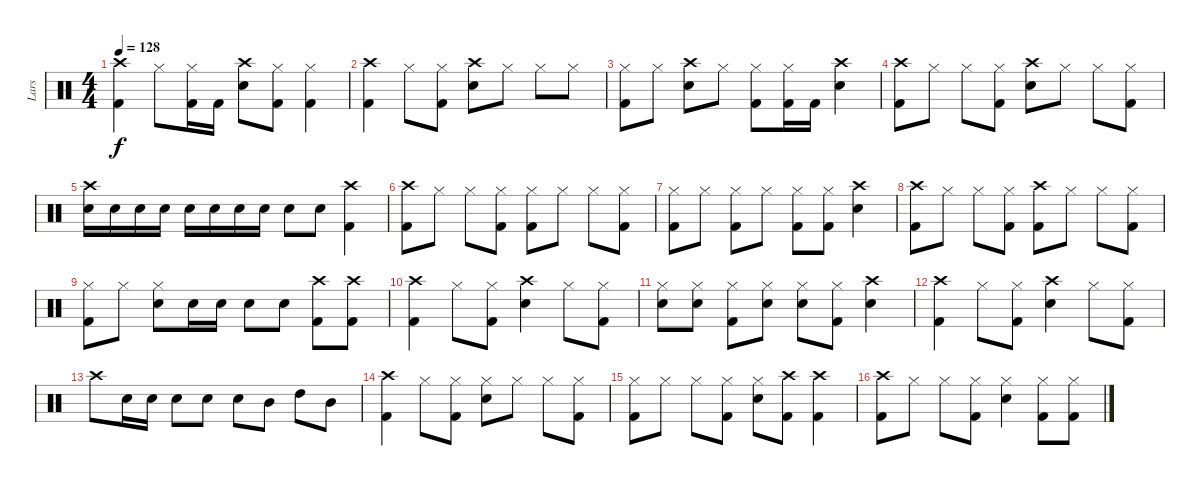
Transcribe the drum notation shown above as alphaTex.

\track ("Lars" "Lars") {instrument percussion}
\staff {score}
\articulation defaults
\ts (4 4)
\tempo 128
\clef neutral
\ks c
("Crash high (hit)" "Kick (hit) 2").4{dy f} "Hi-Hat (closed)".8 ("Hi-Hat (closed)" "Kick (hit) 2").16 "Kick (hit) 2".16 ("Crash high (hit)" "Electric Snare (hit)").8 ("Hi-Hat (closed)" "Kick (hit) 2").8 ("Hi-Hat (closed)" "Kick (hit) 2").4 |
("Crash high (hit)" "Kick (hit) 2").4 "Hi-Hat (closed)".8 ("Hi-Hat (closed)" "Kick (hit) 2").8 ("Crash high (hit)" "Electric Snare (hit)").8 "Hi-Hat (closed)".8 "Hi-Hat (closed)".8 "Hi-Hat (closed)".8 |
("Hi-Hat (closed)" "Kick (hit) 2").8 "Hi-Hat (closed)".8 ("Electric Snare (hit)" "Crash high (hit)").8 "Hi-Hat (closed)".8 ("Hi-Hat (closed)" "Kick (hit) 2").8 ("Hi-Hat (closed)" "Kick (hit) 2").16 "Kick (hit) 2".16 ("Crash high (hit)" "Electric Snare (hit)").4 |
("Kick (hit) 2" "Crash high (hit)").8 "Hi-Hat (closed)".8 "Hi-Hat (closed)".8 ("Hi-Hat (closed)" "Kick (hit) 2").8 ("Crash high (hit)" "Electric Snare (hit)").8 "Hi-Hat (closed)".8 "Hi-Hat (closed)".8 ("Hi-Hat (closed)" "Kick (hit) 2").8 |
("Crash high (hit)" "Electric Snare (hit)").16 "Electric Snare (hit)".16 "Electric Snare (hit)".16 "Electric Snare (hit)".16 "Electric Snare (hit)".16 "Electric Snare (hit)".16 "Electric Snare (hit)".16 "Electric Snare (hit)".16 "Electric Snare (hit)".8 "Electric Snare (hit)".8 ("Crash high (hit)" "Kick (hit) 2").4 |
("Crash high (hit)" "Kick (hit) 2").8 "Hi-Hat (closed)".8 "Hi-Hat (closed)".8 ("Hi-Hat (closed)" "Kick (hit) 2").8 ("Hi-Hat (closed)" "Kick (hit) 2").8 "Hi-Hat (closed)".8 "Hi-Hat (closed)".8 ("Hi-Hat (closed)" "Kick (hit) 2").8 |
("Hi-Hat (closed)" "Kick (hit) 2").8 "Hi-Hat (closed)".8 ("Hi-Hat (closed)" "Kick (hit) 2").8 "Hi-Hat (closed)".8 ("Hi-Hat (closed)" "Kick (hit) 2").8 ("Hi-Hat (closed)" "Kick (hit) 2").8 ("Crash high (hit)" "Electric Snare (hit)").4 |
("Crash high (hit)" "Kick (hit) 2").8 "Hi-Hat (closed)".8 "Hi-Hat (closed)".8 ("Hi-Hat (closed)" "Kick (hit) 2").8 ("Crash high (hit)" "Kick (hit) 2").8 "Hi-Hat (closed)".8 "Hi-Hat (closed)".8 ("Hi-Hat (closed)" "Kick (hit) 2").8 |
("Hi-Hat (closed)" "Kick (hit) 2").8 "Hi-Hat (closed)".8 ("Hi-Hat (closed)" "Electric Snare (hit)").8 "Electric Snare (hit)".16 "Electric Snare (hit)".16 "Electric Snare (hit)".8 "Electric Snare (hit)".8 ("Crash high (hit)" "Kick (hit) 2").8 ("Crash high (hit)" "Kick (hit) 2").8 |
("Crash high (hit)" "Kick (hit) 2").4 "Hi-Hat (closed)".8 ("Hi-Hat (closed)" "Kick (hit) 2").8 ("Crash high (hit)" "Electric Snare (hit)").4 "Hi-Hat (closed)".8 ("Hi-Hat (closed)" "Kick (hit) 2").8 |
("Hi-Hat (closed)" "Electric Snare (hit)").8 ("Hi-Hat (closed)" "Electric Snare (hit)").8 ("Hi-Hat (closed)" "Kick (hit) 2").8 ("Hi-Hat (closed)" "Electric Snare (hit)").8 ("Hi-Hat (closed)" "Electric Snare (hit)").8 ("Hi-Hat (closed)" "Kick (hit) 2").8 ("Crash high (hit)" "Electric Snare (hit)").4 |
("Crash high (hit)" "Kick (hit) 2").4 "Hi-Hat (closed)".8 ("Hi-Hat (closed)" "Kick (hit) 2").8 ("Crash high (hit)" "Electric Snare (hit)").4 "Hi-Hat (closed)".8 ("Hi-Hat (closed)" "Kick (hit) 2").8 |
"Crash high (hit)".8 "Electric Snare (hit)".16 "Electric Snare (hit)".16 "Electric Snare (hit)".8 "Electric Snare (hit)".8 "Electric Snare (hit)".8 "Mid Tom (hit)".8 "High Tom (hit)".8 "Mid Tom (hit)".8 |
("Crash high (hit)" "Kick (hit) 2").4 "Hi-Hat (closed)".8 ("Hi-Hat (closed)" "Kick (hit) 2").8 ("Hi-Hat (closed)" "Electric Snare (hit)").8 "Hi-Hat (closed)".8 "Hi-Hat (closed)".8 ("Hi-Hat (closed)" "Kick (hit) 2").8 |
("Hi-Hat (closed)" "Kick (hit) 2").8 "Hi-Hat (closed)".8 "Hi-Hat (closed)".8 ("Hi-Hat (closed)" "Kick (hit) 2").8 ("Hi-Hat (closed)" "Electric Snare (hit)").8 ("Crash high (hit)" "Kick (hit) 2").8 ("Crash high (hit)" "Kick (hit) 2").4 |
("Crash high (hit)" "Kick (hit) 2").8 "Hi-Hat (closed)".8 "Hi-Hat (closed)".8 ("Hi-Hat (closed)" "Kick (hit) 2").8 ("Hi-Hat (closed)" "Electric Snare (hit)").4 ("Hi-Hat (closed)" "Kick (hit) 2").8 ("Hi-Hat (closed)" "Kick (hit) 2").8
